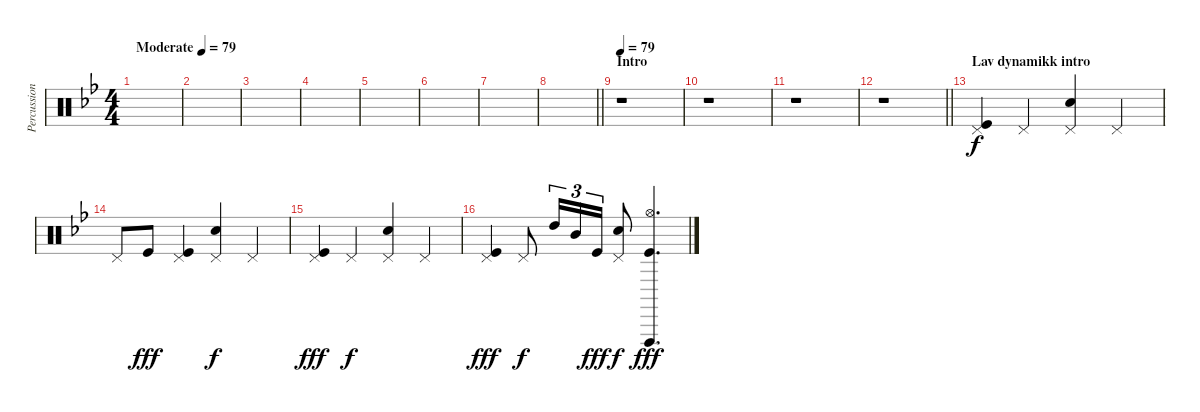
\track ("Percussion" "Percussion") {instrument percussion}
\staff {score}
\articulation defaults
\ts (4 4)
\tempo (79 "Moderate")
\tempo 63
\tempo (79 "Moderate")
\clef neutral
\ks gminor
|
|
|
|
|
|
|
\barLineRight lightlight
|
\section ("" "Intro")
\tempo 79
r.1 |
r.1 |
r.1 |
\barLineRight lightlight
r.1 |
\section ("" "Lav dynamikk intro")
("Pedal Hi-Hat (hit)" "Kick (hit)").4 "Pedal Hi-Hat (hit)".4{dy f} ("Pedal Hi-Hat (hit)" "Electric Snare (hit)").4 "Pedal Hi-Hat (hit)".4 |
"Pedal Hi-Hat (hit)".8 "Kick (hit)".8{dy fff} ("Pedal Hi-Hat (hit)" "Kick (hit)").4 ("Pedal Hi-Hat (hit)" "Electric Snare (hit)").4{dy f} "Pedal Hi-Hat (hit)".4 |
("Pedal Hi-Hat (hit)" "Kick (hit)").4{dy fff} "Pedal Hi-Hat (hit)".4{dy f} ("Pedal Hi-Hat (hit)" "Electric Snare (hit)").4 "Pedal Hi-Hat (hit)".4 |
("Pedal Hi-Hat (hit)" "Kick (hit)").4{dy fff} "Pedal Hi-Hat (hit)".8{dy f} "High Tom (hit)".16{tu (3 2)} "Mid Tom (hit)".16{tu (3 2)} "Kick (hit)".16{tu (3 2) dy fff} ("Pedal Hi-Hat (hit)" "Electric Snare (hit)").8{dy f} ("Hi-Hat (open)" "Vibraslap (hit)" "Kick (hit)").4{d dy fff}
